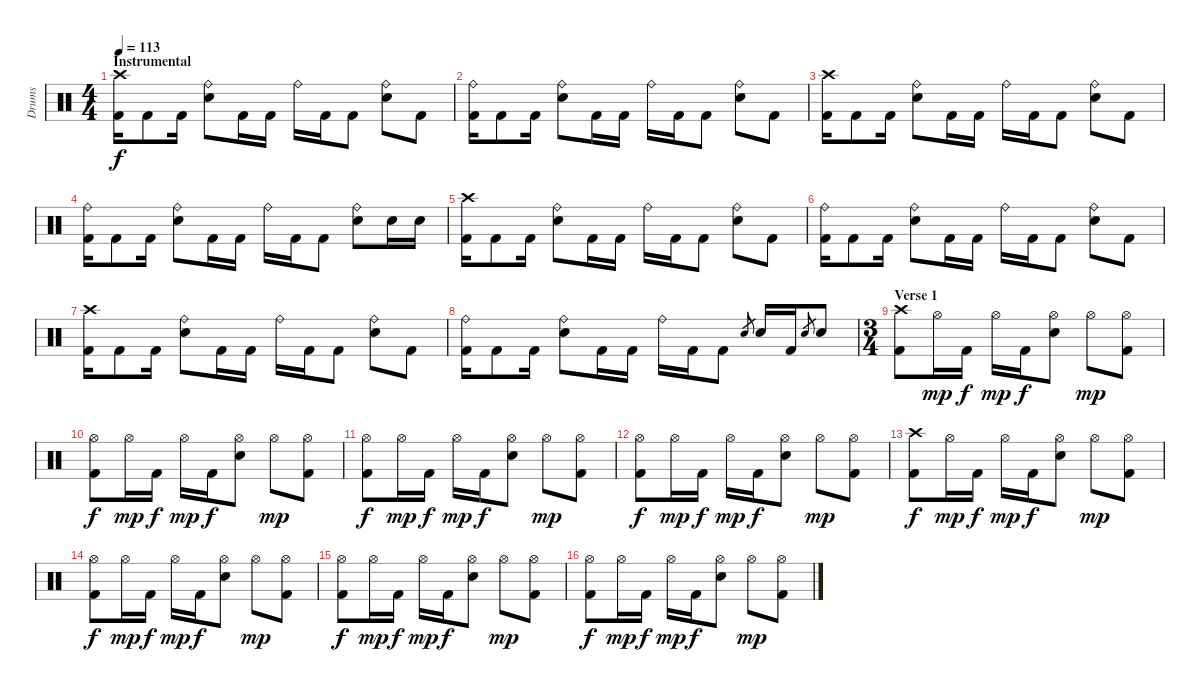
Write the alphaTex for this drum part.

\track ("Drums" "Drums") {instrument percussion}
\staff {score}
\articulation defaults
\ts (4 4)
\section ("" "Instrumental")
\tempo 113
\clef neutral
\ks c
("Crash high (hit)" "Kick (hit) 2").16{dy f} "Kick (hit) 2".8 "Kick (hit) 2".16 ("Ride (bell)" "Snare (hit) 2").8 "Kick (hit) 2".16 "Kick (hit) 2".16 "Ride (bell)".16 "Kick (hit) 2".16 "Kick (hit) 2".8 ("Ride (bell)" "Snare (hit) 2").8 "Kick (hit) 2".8 |
("Ride (bell)" "Kick (hit) 2").16 "Kick (hit) 2".8 "Kick (hit) 2".16 ("Ride (bell)" "Snare (hit) 2").8 "Kick (hit) 2".16 "Kick (hit) 2".16 "Ride (bell)".16 "Kick (hit) 2".16 "Kick (hit) 2".8 ("Ride (bell)" "Snare (hit) 2").8 "Kick (hit) 2".8 |
("Crash high (hit)" "Kick (hit) 2").16 "Kick (hit) 2".8 "Kick (hit) 2".16 ("Ride (bell)" "Snare (hit) 2").8 "Kick (hit) 2".16 "Kick (hit) 2".16 "Ride (bell)".16 "Kick (hit) 2".16 "Kick (hit) 2".8 ("Ride (bell)" "Snare (hit) 2").8 "Kick (hit) 2".8 |
("Ride (bell)" "Kick (hit) 2").16 "Kick (hit) 2".8 "Kick (hit) 2".16 ("Ride (bell)" "Snare (hit) 2").8 "Kick (hit) 2".16 "Kick (hit) 2".16 "Ride (bell)".16 "Kick (hit) 2".16 "Kick (hit) 2".8 ("Ride (bell)" "Snare (hit) 2").8 "Snare (hit) 2".16 "Snare (hit) 2".16 |
("Crash high (hit)" "Kick (hit) 2").16 "Kick (hit) 2".8 "Kick (hit) 2".16 ("Ride (bell)" "Snare (hit) 2").8 "Kick (hit) 2".16 "Kick (hit) 2".16 "Ride (bell)".16 "Kick (hit) 2".16 "Kick (hit) 2".8 ("Ride (bell)" "Snare (hit) 2").8 "Kick (hit) 2".8 |
("Ride (bell)" "Kick (hit) 2").16 "Kick (hit) 2".8 "Kick (hit) 2".16 ("Ride (bell)" "Snare (hit) 2").8 "Kick (hit) 2".16 "Kick (hit) 2".16 "Ride (bell)".16 "Kick (hit) 2".16 "Kick (hit) 2".8 ("Ride (bell)" "Snare (hit) 2").8 "Kick (hit) 2".8 |
("Crash high (hit)" "Kick (hit) 2").16 "Kick (hit) 2".8 "Kick (hit) 2".16 ("Ride (bell)" "Snare (hit) 2").8 "Kick (hit) 2".16 "Kick (hit) 2".16 "Ride (bell)".16 "Kick (hit) 2".16 "Kick (hit) 2".8 ("Ride (bell)" "Snare (hit) 2").8 "Kick (hit) 2".8 |
("Ride (bell)" "Kick (hit) 2").16 "Kick (hit) 2".8 "Kick (hit) 2".16 ("Ride (bell)" "Snare (hit) 2").8 "Kick (hit) 2".16 "Kick (hit) 2".16 "Ride (bell)".16 "Kick (hit) 2".16 "Kick (hit) 2".8 "Snare (hit) 2".8{gr} "Snare (hit) 2".16 "Kick (hit) 2".16 "Snare (hit) 2".8{gr} "Snare (hit) 2".8 |
\ts (3 4)
\section ("" "Verse 1")
("Crash high (hit)" "Kick (hit) 2").8 "Hi-Hat (open)".16{dy mp} "Kick (hit) 2".16{dy f} "Hi-Hat (open)".16{dy mp} "Kick (hit) 2".16{dy f} ("Hi-Hat (open)" "Snare (hit) 2").8 "Hi-Hat (open)".8{dy mp} ("Hi-Hat (open)" "Kick (hit) 2").8 |
("Hi-Hat (open)" "Kick (hit) 2").8{dy f} "Hi-Hat (open)".16{dy mp} "Kick (hit) 2".16{dy f} "Hi-Hat (open)".16{dy mp} "Kick (hit) 2".16{dy f} ("Hi-Hat (open)" "Snare (hit) 2").8 "Hi-Hat (open)".8{dy mp} ("Hi-Hat (open)" "Kick (hit) 2").8 |
("Hi-Hat (open)" "Kick (hit) 2").8{dy f} "Hi-Hat (open)".16{dy mp} "Kick (hit) 2".16{dy f} "Hi-Hat (open)".16{dy mp} "Kick (hit) 2".16{dy f} ("Hi-Hat (open)" "Snare (hit) 2").8 "Hi-Hat (open)".8{dy mp} ("Hi-Hat (open)" "Kick (hit) 2").8 |
("Hi-Hat (open)" "Kick (hit) 2").8{dy f} "Hi-Hat (open)".16{dy mp} "Kick (hit) 2".16{dy f} "Hi-Hat (open)".16{dy mp} "Kick (hit) 2".16{dy f} ("Hi-Hat (open)" "Snare (hit) 2").8 "Hi-Hat (open)".8{dy mp} ("Hi-Hat (open)" "Kick (hit) 2").8 |
("Crash high (hit)" "Kick (hit) 2").8{dy f} "Hi-Hat (open)".16{dy mp} "Kick (hit) 2".16{dy f} "Hi-Hat (open)".16{dy mp} "Kick (hit) 2".16{dy f} ("Hi-Hat (open)" "Snare (hit) 2").8 "Hi-Hat (open)".8{dy mp} ("Hi-Hat (open)" "Kick (hit) 2").8 |
("Hi-Hat (open)" "Kick (hit) 2").8{dy f} "Hi-Hat (open)".16{dy mp} "Kick (hit) 2".16{dy f} "Hi-Hat (open)".16{dy mp} "Kick (hit) 2".16{dy f} ("Hi-Hat (open)" "Snare (hit) 2").8 "Hi-Hat (open)".8{dy mp} ("Hi-Hat (open)" "Kick (hit) 2").8 |
("Hi-Hat (open)" "Kick (hit) 2").8{dy f} "Hi-Hat (open)".16{dy mp} "Kick (hit) 2".16{dy f} "Hi-Hat (open)".16{dy mp} "Kick (hit) 2".16{dy f} ("Hi-Hat (open)" "Snare (hit) 2").8 "Hi-Hat (open)".8{dy mp} ("Hi-Hat (open)" "Kick (hit) 2").8 |
("Hi-Hat (open)" "Kick (hit) 2").8{dy f} "Hi-Hat (open)".16{dy mp} "Kick (hit) 2".16{dy f} "Hi-Hat (open)".16{dy mp} "Kick (hit) 2".16{dy f} ("Hi-Hat (open)" "Snare (hit) 2").8 "Hi-Hat (open)".8{dy mp} ("Hi-Hat (open)" "Kick (hit) 2").8
